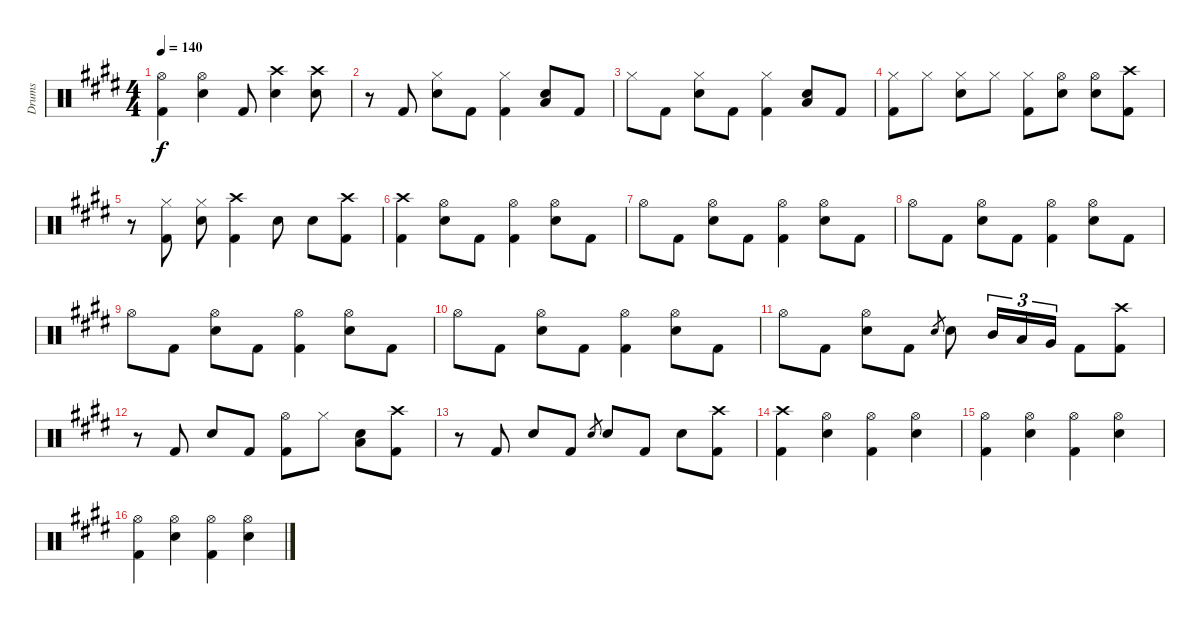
\track ("Drums" "Drums") {instrument percussion}
\staff {score}
\articulation defaults
\ts (4 4)
\tempo 140
\clef neutral
\ks e
("Hi-Hat (open)" "Kick (hit) 2").4{dy f} ("Hi-Hat (open)" "Electric Snare (hit)").4 "Kick (hit) 2".8 ("Crash high (hit)" "Electric Snare (hit)").4 ("Crash high (hit)" "Electric Snare (hit)").8 |
r.8 "Kick (hit) 2".8 ("Hi-Hat (closed)" "Electric Snare (hit)").8 "Kick (hit) 2".8 ("Hi-Hat (closed)" "Kick (hit) 2").4 ("Electric Snare (hit)" "Low Tom (hit)").8 "Kick (hit) 2".8 |
"Hi-Hat (closed)".8 "Kick (hit) 2".8 ("Hi-Hat (closed)" "Electric Snare (hit)").8 "Kick (hit) 2".8 ("Hi-Hat (closed)" "Kick (hit) 2").4 ("Electric Snare (hit)" "Low Tom (hit)").8 "Kick (hit) 2".8 |
("Hi-Hat (closed)" "Kick (hit) 2").8 "Hi-Hat (closed)".8 ("Hi-Hat (closed)" "Electric Snare (hit)").8 "Hi-Hat (closed)".8 ("Hi-Hat (closed)" "Kick (hit) 2").8 ("Hi-Hat (open)" "Electric Snare (hit)").8 ("Hi-Hat (open)" "Electric Snare (hit)").8 ("Crash high (hit)" "Kick (hit) 2").8 |
r.8 ("Hi-Hat (closed)" "Kick (hit) 2").8 ("Hi-Hat (closed)" "Electric Snare (hit)").8 ("Crash high (hit)" "Kick (hit) 2").4 "Electric Snare (hit)".8 "Electric Snare (hit)".8 ("Crash high (hit)" "Kick (hit) 2").8 |
("Crash high (hit)" "Kick (hit) 2").4 ("Hi-Hat (open)" "Electric Snare (hit)").8 "Kick (hit) 2".8 ("Hi-Hat (open)" "Kick (hit) 2").4 ("Hi-Hat (open)" "Electric Snare (hit)").8 "Kick (hit) 2".8 |
"Hi-Hat (open)".8 "Kick (hit) 2".8 ("Hi-Hat (open)" "Electric Snare (hit)").8 "Kick (hit) 2".8 ("Hi-Hat (open)" "Kick (hit) 2").4 ("Hi-Hat (open)" "Electric Snare (hit)").8 "Kick (hit) 2".8 |
"Hi-Hat (open)".8 "Kick (hit) 2".8 ("Hi-Hat (open)" "Electric Snare (hit)").8 "Kick (hit) 2".8 ("Hi-Hat (open)" "Kick (hit) 2").4 ("Hi-Hat (open)" "Electric Snare (hit)").8 "Kick (hit) 2".8 |
"Hi-Hat (open)".8 "Kick (hit) 2".8 ("Hi-Hat (open)" "Electric Snare (hit)").8 "Kick (hit) 2".8 ("Hi-Hat (open)" "Kick (hit) 2").4 ("Hi-Hat (open)" "Electric Snare (hit)").8 "Kick (hit) 2".8 |
"Hi-Hat (open)".8 "Kick (hit) 2".8 ("Hi-Hat (open)" "Electric Snare (hit)").8 "Kick (hit) 2".8 ("Hi-Hat (open)" "Kick (hit) 2").4 ("Hi-Hat (open)" "Electric Snare (hit)").8 "Kick (hit) 2".8 |
"Hi-Hat (open)".8 "Kick (hit) 2".8 ("Hi-Hat (open)" "Electric Snare (hit)").8 "Kick (hit) 2".8 "Electric Snare (hit)".8{gr} "Electric Snare (hit)".8 "Mid Tom (hit)".16{tu (3 2)} "Low Tom (hit)".16{tu (3 2)} "Very Low Tom (hit)".16{tu (3 2)} "Kick (hit) 2".8 ("Crash high (hit)" "Kick (hit) 2").8 |
r.8 "Kick (hit) 2".8 "Electric Snare (hit)".8 "Kick (hit) 2".8 ("Hi-Hat (open)" "Kick (hit) 2").8 "Hi-Hat (closed)".8 ("Electric Snare (hit)" "Low Tom (hit)").8 ("Crash high (hit)" "Kick (hit) 2").8 |
r.8 "Kick (hit) 2".8 "Electric Snare (hit)".8 "Kick (hit) 2".8 "Electric Snare (hit)".8{gr} "Electric Snare (hit)".8 "Kick (hit) 2".8 "Electric Snare (hit)".8 ("Crash high (hit)" "Kick (hit) 2").8 |
("Crash high (hit)" "Kick (hit) 2").4 ("Hi-Hat (open)" "Electric Snare (hit)").4 ("Hi-Hat (open)" "Kick (hit) 2").4 ("Hi-Hat (open)" "Electric Snare (hit)").4 |
("Hi-Hat (open)" "Kick (hit) 2").4 ("Hi-Hat (open)" "Electric Snare (hit)").4 ("Hi-Hat (open)" "Kick (hit) 2").4 ("Hi-Hat (open)" "Electric Snare (hit)").4 |
("Hi-Hat (open)" "Kick (hit) 2").4 ("Hi-Hat (open)" "Electric Snare (hit)").4 ("Hi-Hat (open)" "Kick (hit) 2").4 ("Hi-Hat (open)" "Electric Snare (hit)").4
